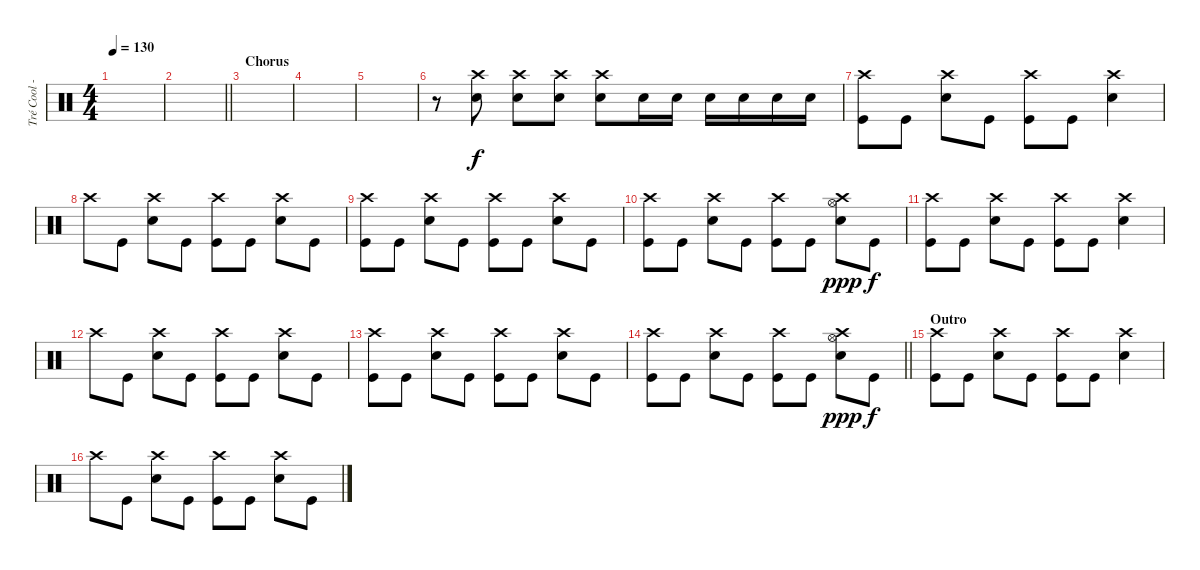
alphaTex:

\track ("Tré Cool - Drums" "Tré Cool -") {instrument percussion}
\staff {score}
\articulation defaults
\ts (4 4)
\tempo 130
\clef neutral
\ks c
|
\barLineRight lightlight
|
\section ("" "Chorus")
|
|
|
r.8 ("Crash high (hit)" "Snare (hit) 2").8 ("Crash high (hit)" "Snare (hit) 2").8 ("Crash high (hit)" "Snare (hit) 2").8 ("Crash high (hit)" "Snare (hit) 2").8 "Snare (hit) 2".16 "Snare (hit) 2".16 "Snare (hit) 2".16 "Snare (hit) 2".16 "Snare (hit) 2".16 "Snare (hit) 2".16 |
("Kick (hit)" "Crash high (hit)").8 "Kick (hit)".8 ("Snare (hit) 2" "Crash high (hit)").8 "Kick (hit)".8 ("Kick (hit)" "Crash high (hit)").8 "Kick (hit)".8 ("Snare (hit) 2" "Crash high (hit)").4 |
"Crash high (hit)".8 "Kick (hit)".8 ("Snare (hit) 2" "Crash high (hit)").8 "Kick (hit)".8 ("Kick (hit)" "Crash high (hit)").8 "Kick (hit)".8 ("Snare (hit) 2" "Crash high (hit)").8 "Kick (hit)".8 |
("Kick (hit)" "Crash high (hit)").8 "Kick (hit)".8 ("Snare (hit) 2" "Crash high (hit)").8 "Kick (hit)".8 ("Kick (hit)" "Crash high (hit)").8 "Kick (hit)".8 ("Snare (hit) 2" "Crash high (hit)").8 "Kick (hit)".8 |
("Kick (hit)" "Crash high (hit)").8 "Kick (hit)".8 ("Snare (hit) 2" "Crash high (hit)").8 "Kick (hit)".8 ("Kick (hit)" "Crash high (hit)").8 "Kick (hit)".8 ("Snare (hit) 2" "Crash high (hit)" "Hi-Hat (open)").8{dy ppp} "Kick (hit)".8{dy f} |
("Kick (hit)" "Crash high (hit)").8 "Kick (hit)".8 ("Snare (hit) 2" "Crash high (hit)").8 "Kick (hit)".8 ("Kick (hit)" "Crash high (hit)").8 "Kick (hit)".8 ("Snare (hit) 2" "Crash high (hit)").4 |
"Crash high (hit)".8 "Kick (hit)".8 ("Snare (hit) 2" "Crash high (hit)").8 "Kick (hit)".8 ("Kick (hit)" "Crash high (hit)").8 "Kick (hit)".8 ("Snare (hit) 2" "Crash high (hit)").8 "Kick (hit)".8 |
("Kick (hit)" "Crash high (hit)").8 "Kick (hit)".8 ("Snare (hit) 2" "Crash high (hit)").8 "Kick (hit)".8 ("Kick (hit)" "Crash high (hit)").8 "Kick (hit)".8 ("Snare (hit) 2" "Crash high (hit)").8 "Kick (hit)".8 |
\barLineRight lightlight
("Kick (hit)" "Crash high (hit)").8 "Kick (hit)".8 ("Snare (hit) 2" "Crash high (hit)").8 "Kick (hit)".8 ("Kick (hit)" "Crash high (hit)").8 "Kick (hit)".8 ("Snare (hit) 2" "Crash high (hit)" "Hi-Hat (open)").8{dy ppp} "Kick (hit)".8{dy f} |
\section ("" "Outro")
("Kick (hit)" "Crash high (hit)").8 "Kick (hit)".8 ("Snare (hit) 2" "Crash high (hit)").8 "Kick (hit)".8 ("Kick (hit)" "Crash high (hit)").8 "Kick (hit)".8 ("Snare (hit) 2" "Crash high (hit)").4 |
"Crash high (hit)".8 "Kick (hit)".8 ("Snare (hit) 2" "Crash high (hit)").8 "Kick (hit)".8 ("Kick (hit)" "Crash high (hit)").8 "Kick (hit)".8 ("Snare (hit) 2" "Crash high (hit)").8 "Kick (hit)".8
